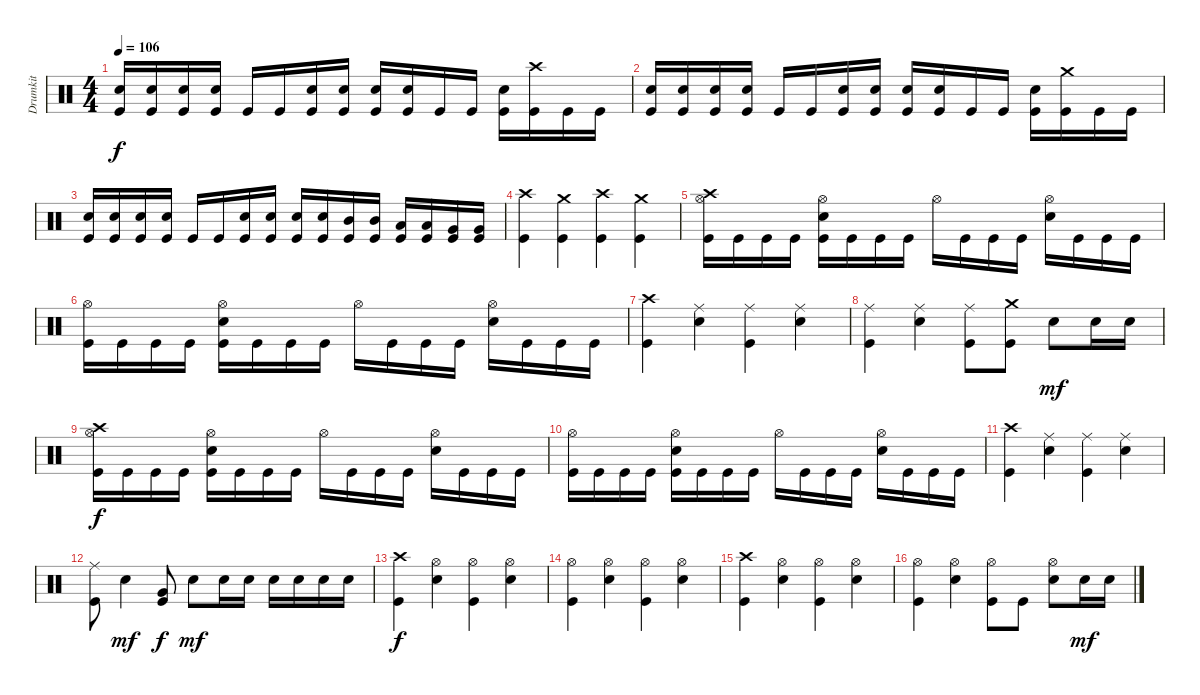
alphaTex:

\track ("Drumkit" "Drumkit") {instrument percussion}
\staff {score}
\articulation defaults
\ts (4 4)
\tempo 106
\clef neutral
\ks c
("Kick (hit)" "Snare (hit) 2").16{dy f} ("Kick (hit)" "Snare (hit) 2").16 ("Kick (hit)" "Snare (hit) 2").16 ("Kick (hit)" "Snare (hit) 2").16 "Kick (hit)".16 "Kick (hit)".16 ("Kick (hit)" "Snare (hit) 2").16 ("Kick (hit)" "Snare (hit) 2").16 ("Kick (hit)" "Snare (hit) 2").16 ("Kick (hit)" "Snare (hit) 2").16 "Kick (hit)".16 "Kick (hit)".16 ("Kick (hit)" "Snare (hit) 2").16 ("Kick (hit)" "Crash high (hit)").16 "Kick (hit)".16 "Kick (hit)".16 |
("Kick (hit)" "Snare (hit) 2").16 ("Kick (hit)" "Snare (hit) 2").16 ("Kick (hit)" "Snare (hit) 2").16 ("Kick (hit)" "Snare (hit) 2").16 "Kick (hit)".16 "Kick (hit)".16 ("Kick (hit)" "Snare (hit) 2").16 ("Kick (hit)" "Snare (hit) 2").16 ("Kick (hit)" "Snare (hit) 2").16 ("Kick (hit)" "Snare (hit) 2").16 "Kick (hit)".16 "Kick (hit)".16 ("Kick (hit)" "Snare (hit) 2").16 ("Kick (hit)" "Crash medium (hit)").16 "Kick (hit)".16 "Kick (hit)".16 |
("Kick (hit)" "Snare (hit) 2").16 ("Kick (hit)" "Snare (hit) 2").16 ("Kick (hit)" "Snare (hit) 2").16 ("Kick (hit)" "Snare (hit) 2").16 "Kick (hit)".16 "Kick (hit)".16 ("Kick (hit)" "Snare (hit) 2").16 ("Kick (hit)" "Snare (hit) 2").16 ("Kick (hit)" "Snare (hit) 2").16 ("Kick (hit)" "Snare (hit) 2").16 ("Kick (hit)" "Mid Tom (hit)").16 ("Kick (hit)" "Mid Tom (hit)").16 ("Kick (hit)" "Low Tom (hit)").16 ("Kick (hit)" "Low Tom (hit)").16 ("Kick (hit)" "Very Low Tom (hit)").16 ("Kick (hit)" "Very Low Tom (hit)").16 |
("Kick (hit)" "Crash high (hit)").4 ("Kick (hit)" "Crash medium (hit)").4 ("Kick (hit)" "Crash high (hit)").4 ("Kick (hit)" "Crash medium (hit)").4 |
("Kick (hit)" "Crash high (hit)" "Hi-Hat (open)").16 "Kick (hit)".16 "Kick (hit)".16 "Kick (hit)".16 ("Kick (hit)" "Hi-Hat (open)" "Snare (hit) 2").16 "Kick (hit)".16 "Kick (hit)".16 "Kick (hit)".16 "Hi-Hat (open)".16 "Kick (hit)".16 "Kick (hit)".16 "Kick (hit)".16 ("Hi-Hat (open)" "Snare (hit) 2").16 "Kick (hit)".16 "Kick (hit)".16 "Kick (hit)".16 |
("Kick (hit)" "Hi-Hat (open)").16 "Kick (hit)".16 "Kick (hit)".16 "Kick (hit)".16 ("Kick (hit)" "Hi-Hat (open)" "Snare (hit) 2").16 "Kick (hit)".16 "Kick (hit)".16 "Kick (hit)".16 "Hi-Hat (open)".16 "Kick (hit)".16 "Kick (hit)".16 "Kick (hit)".16 ("Hi-Hat (open)" "Snare (hit) 2").16 "Kick (hit)".16 "Kick (hit)".16 "Kick (hit)".16 |
("Kick (hit)" "Crash high (hit)").4 ("Ride (middle)" "Snare (hit) 2").4 ("Kick (hit)" "Ride (middle)").4 ("Ride (middle)" "Snare (hit) 2").4 |
("Kick (hit)" "Ride (middle)").4 ("Ride (middle)" "Snare (hit) 2").4 ("Kick (hit)" "Ride (middle)").8 ("Kick (hit)" "Crash medium (hit)").8 "Snare (hit) 2".8{dy mf} "Snare (hit) 2".16 "Snare (hit) 2".16 |
("Kick (hit)" "Crash high (hit)" "Hi-Hat (open)").16{dy f} "Kick (hit)".16 "Kick (hit)".16 "Kick (hit)".16 ("Kick (hit)" "Hi-Hat (open)" "Snare (hit) 2").16 "Kick (hit)".16 "Kick (hit)".16 "Kick (hit)".16 "Hi-Hat (open)".16 "Kick (hit)".16 "Kick (hit)".16 "Kick (hit)".16 ("Hi-Hat (open)" "Snare (hit) 2").16 "Kick (hit)".16 "Kick (hit)".16 "Kick (hit)".16 |
("Kick (hit)" "Hi-Hat (open)").16 "Kick (hit)".16 "Kick (hit)".16 "Kick (hit)".16 ("Kick (hit)" "Hi-Hat (open)" "Snare (hit) 2").16 "Kick (hit)".16 "Kick (hit)".16 "Kick (hit)".16 "Hi-Hat (open)".16 "Kick (hit)".16 "Kick (hit)".16 "Kick (hit)".16 ("Hi-Hat (open)" "Snare (hit) 2").16 "Kick (hit)".16 "Kick (hit)".16 "Kick (hit)".16 |
("Kick (hit)" "Crash high (hit)").4 ("Ride (middle)" "Snare (hit) 2").4 ("Kick (hit)" "Ride (middle)").4 ("Ride (middle)" "Snare (hit) 2").4 |
("Kick (hit)" "Ride (middle)").8 "Snare (hit) 2".4{dy mf} ("Kick (hit)" "Very Low Tom (hit)").8{dy f} "Snare (hit) 2".8{dy mf} "Snare (hit) 2".16 "Snare (hit) 2".16 "Snare (hit) 2".16 "Snare (hit) 2".16 "Snare (hit) 2".16 "Snare (hit) 2".16 |
("Kick (hit)" "Crash high (hit)").4{dy f} ("Hi-Hat (open)" "Snare (hit) 2").4 ("Kick (hit)" "Hi-Hat (open)").4 ("Hi-Hat (open)" "Snare (hit) 2").4 |
("Kick (hit)" "Hi-Hat (open)").4 ("Hi-Hat (open)" "Snare (hit) 2").4 ("Kick (hit)" "Hi-Hat (open)").4 ("Hi-Hat (open)" "Snare (hit) 2").4 |
("Kick (hit)" "Crash high (hit)").4 ("Hi-Hat (open)" "Snare (hit) 2").4 ("Kick (hit)" "Hi-Hat (open)").4 ("Hi-Hat (open)" "Snare (hit) 2").4 |
("Kick (hit)" "Hi-Hat (open)").4 ("Hi-Hat (open)" "Snare (hit) 2").4 ("Kick (hit)" "Hi-Hat (open)").8 "Kick (hit)".8 ("Hi-Hat (open)" "Snare (hit) 2").8 "Snare (hit) 2".16{dy mf} "Snare (hit) 2".16
